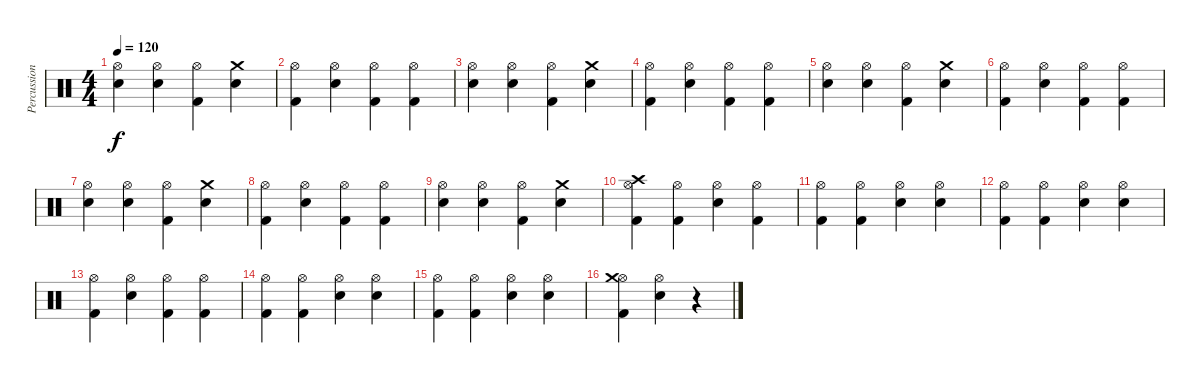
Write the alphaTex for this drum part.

\track ("Percussion" "Percussion") {instrument percussion}
\staff {score}
\articulation defaults
\ts (4 4)
\tempo 120
\clef neutral
\ks c
("Snare (hit) 2" "Hi-Hat (open)").4{dy f} ("Snare (hit) 2" "Hi-Hat (open)").4 ("Kick (hit) 2" "Hi-Hat (open)").4 ("Snare (hit) 2" "Crash medium (hit)").4 |
("Kick (hit) 2" "Hi-Hat (open)").4 ("Snare (hit) 2" "Hi-Hat (open)").4 ("Kick (hit) 2" "Hi-Hat (open)").4 ("Kick (hit) 2" "Hi-Hat (open)").4 |
("Snare (hit) 2" "Hi-Hat (open)").4 ("Snare (hit) 2" "Hi-Hat (open)").4 ("Kick (hit) 2" "Hi-Hat (open)").4 ("Snare (hit) 2" "Crash medium (hit)").4 |
("Kick (hit) 2" "Hi-Hat (open)").4 ("Snare (hit) 2" "Hi-Hat (open)").4 ("Kick (hit) 2" "Hi-Hat (open)").4 ("Kick (hit) 2" "Hi-Hat (open)").4 |
("Snare (hit) 2" "Hi-Hat (open)").4 ("Snare (hit) 2" "Hi-Hat (open)").4 ("Kick (hit) 2" "Hi-Hat (open)").4 ("Snare (hit) 2" "Crash medium (hit)").4 |
("Kick (hit) 2" "Hi-Hat (open)").4 ("Snare (hit) 2" "Hi-Hat (open)").4 ("Kick (hit) 2" "Hi-Hat (open)").4 ("Kick (hit) 2" "Hi-Hat (open)").4 |
("Snare (hit) 2" "Hi-Hat (open)").4 ("Snare (hit) 2" "Hi-Hat (open)").4 ("Kick (hit) 2" "Hi-Hat (open)").4 ("Snare (hit) 2" "Crash medium (hit)").4 |
("Kick (hit) 2" "Hi-Hat (open)").4 ("Snare (hit) 2" "Hi-Hat (open)").4 ("Kick (hit) 2" "Hi-Hat (open)").4 ("Kick (hit) 2" "Hi-Hat (open)").4 |
("Snare (hit) 2" "Hi-Hat (open)").4 ("Snare (hit) 2" "Hi-Hat (open)").4 ("Kick (hit) 2" "Hi-Hat (open)").4 ("Snare (hit) 2" "Crash medium (hit)").4 |
("Kick (hit) 2" "Crash high (hit)" "Hi-Hat (open)").4 ("Kick (hit) 2" "Hi-Hat (open)").4 ("Snare (hit) 2" "Hi-Hat (open)").4 ("Kick (hit) 2" "Hi-Hat (open)").4 |
("Kick (hit) 2" "Hi-Hat (open)").4 ("Kick (hit) 2" "Hi-Hat (open)").4 ("Snare (hit) 2" "Hi-Hat (open)").4 ("Snare (hit) 2" "Hi-Hat (open)").4 |
("Kick (hit) 2" "Hi-Hat (open)").4 ("Kick (hit) 2" "Hi-Hat (open)").4 ("Snare (hit) 2" "Hi-Hat (open)").4 ("Snare (hit) 2" "Hi-Hat (open)").4 |
("Kick (hit) 2" "Hi-Hat (open)").4 ("Snare (hit) 2" "Hi-Hat (open)").4 ("Kick (hit) 2" "Hi-Hat (open)").4 ("Kick (hit) 2" "Hi-Hat (open)").4 |
("Kick (hit) 2" "Hi-Hat (open)").4 ("Kick (hit) 2" "Hi-Hat (open)").4 ("Snare (hit) 2" "Hi-Hat (open)").4 ("Snare (hit) 2" "Hi-Hat (open)").4 |
("Kick (hit) 2" "Hi-Hat (open)").4 ("Kick (hit) 2" "Hi-Hat (open)").4 ("Snare (hit) 2" "Hi-Hat (open)").4 ("Snare (hit) 2" "Hi-Hat (open)").4 |
("Kick (hit) 2" "Hi-Hat (open)" "Crash medium (hit)").4 ("Snare (hit) 2" "Hi-Hat (open)").4 r.4
